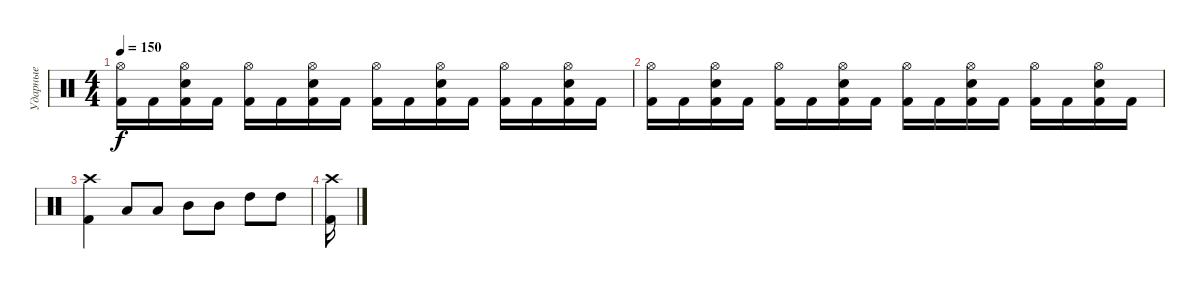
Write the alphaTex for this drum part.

\track ("Ударные" "Ударные") {instrument percussion}
\staff {score}
\articulation defaults
\ts (4 4)
\tempo 150
\clef neutral
\ks c
("Kick (hit) 2" "Hi-Hat (open)").16{dy f} "Kick (hit) 2".16 ("Kick (hit) 2" "Electric Snare (hit)" "Hi-Hat (open)").16 "Kick (hit) 2".16 ("Kick (hit) 2" "Hi-Hat (open)").16 "Kick (hit) 2".16 ("Kick (hit) 2" "Electric Snare (hit)" "Hi-Hat (open)").16 "Kick (hit) 2".16 ("Kick (hit) 2" "Hi-Hat (open)").16 "Kick (hit) 2".16 ("Kick (hit) 2" "Electric Snare (hit)" "Hi-Hat (open)").16 "Kick (hit) 2".16 ("Kick (hit) 2" "Hi-Hat (open)").16 "Kick (hit) 2".16 ("Kick (hit) 2" "Electric Snare (hit)" "Hi-Hat (open)").16 "Kick (hit) 2".16 |
("Kick (hit) 2" "Hi-Hat (open)").16 "Kick (hit) 2".16 ("Kick (hit) 2" "Electric Snare (hit)" "Hi-Hat (open)").16 "Kick (hit) 2".16 ("Kick (hit) 2" "Hi-Hat (open)").16 "Kick (hit) 2".16 ("Kick (hit) 2" "Electric Snare (hit)" "Hi-Hat (open)").16 "Kick (hit) 2".16 ("Kick (hit) 2" "Hi-Hat (open)").16 "Kick (hit) 2".16 ("Kick (hit) 2" "Electric Snare (hit)" "Hi-Hat (open)").16 "Kick (hit) 2".16 ("Kick (hit) 2" "Hi-Hat (open)").16 "Kick (hit) 2".16 ("Kick (hit) 2" "Electric Snare (hit)" "Hi-Hat (open)").16 "Kick (hit) 2".16 |
("Kick (hit) 2" "Crash high (hit)").4 "Low Tom (hit)".8 "Low Tom (hit)".8 "Mid Tom (hit)".8 "Mid Tom (hit)".8 "High Tom (hit)".8 "High Tom (hit)".8 |
("Kick (hit) 2" "Crash high (hit)").16
